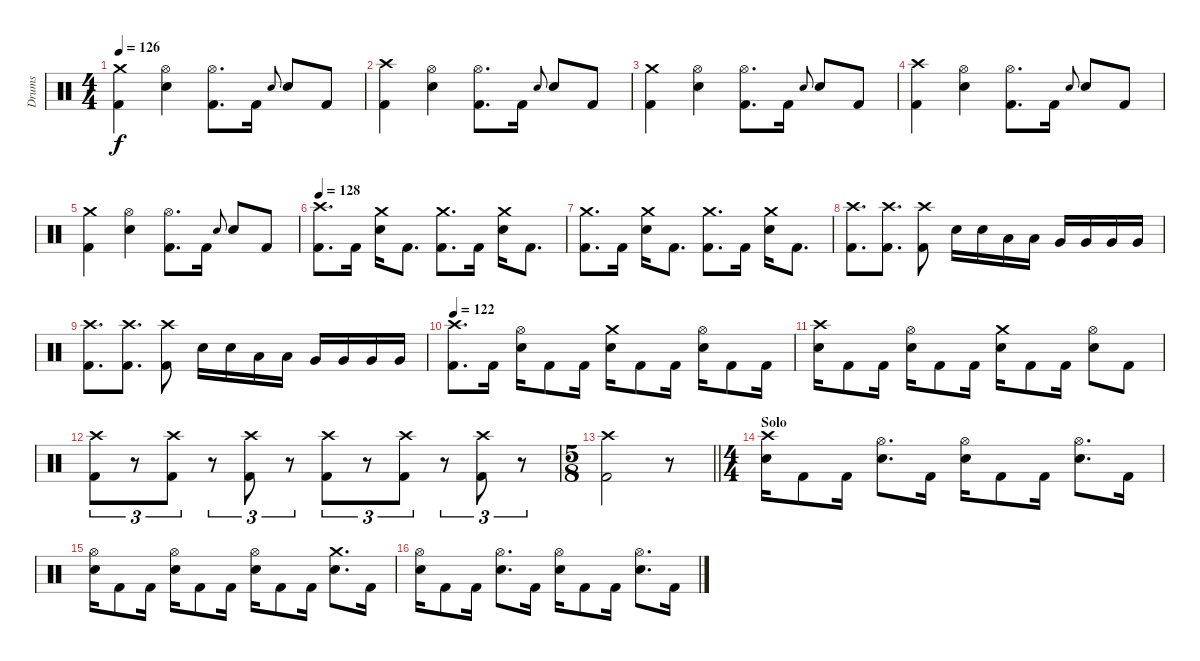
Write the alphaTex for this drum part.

\track ("Drums" "Drums") {instrument percussion}
\staff {score}
\articulation defaults
\ts (4 4)
\tempo 126
\clef neutral
\ks c
("Crash medium (hit)" "Kick (hit) 2").4{dy f} ("Hi-Hat (open)" "Snare (hit) 2").4 ("Hi-Hat (open)" "Kick (hit) 2").8{d} "Kick (hit) 2".16 "Snare (hit) 2".8{gr onbeat} "Snare (hit) 2".8 "Kick (hit) 2".8 |
("Crash high (hit)" "Kick (hit) 2").4 ("Hi-Hat (open)" "Snare (hit) 2").4 ("Hi-Hat (open)" "Kick (hit) 2").8{d} "Kick (hit) 2".16 "Snare (hit) 2".8{gr onbeat} "Snare (hit) 2".8 "Kick (hit) 2".8 |
("Crash medium (hit)" "Kick (hit) 2").4 ("Hi-Hat (open)" "Snare (hit) 2").4 ("Hi-Hat (open)" "Kick (hit) 2").8{d} "Kick (hit) 2".16 "Snare (hit) 2".8{gr onbeat} "Snare (hit) 2".8 "Kick (hit) 2".8 |
("Crash high (hit)" "Kick (hit) 2").4 ("Hi-Hat (open)" "Snare (hit) 2").4 ("Hi-Hat (open)" "Kick (hit) 2").8{d} "Kick (hit) 2".16 "Snare (hit) 2".8{gr onbeat} "Snare (hit) 2".8 "Kick (hit) 2".8 |
("Crash medium (hit)" "Kick (hit) 2").4 ("Hi-Hat (open)" "Snare (hit) 2").4 ("Hi-Hat (open)" "Kick (hit) 2").8{d} "Kick (hit) 2".16 "Snare (hit) 2".8{gr onbeat} "Snare (hit) 2".8 "Kick (hit) 2".8 |
\tempo 128
("Crash high (hit)" "Kick (hit) 2").8{d} "Kick (hit) 2".16 ("Crash medium (hit)" "Snare (hit) 2").16 "Kick (hit) 2".8{d} ("Crash medium (hit)" "Kick (hit) 2").8{d} "Kick (hit) 2".16 ("Crash medium (hit)" "Snare (hit) 2").16 "Kick (hit) 2".8{d} |
("Crash medium (hit)" "Kick (hit) 2").8{d} "Kick (hit) 2".16 ("Crash medium (hit)" "Snare (hit) 2").16 "Kick (hit) 2".8{d} ("Crash medium (hit)" "Kick (hit) 2").8{d} "Kick (hit) 2".16 ("Crash medium (hit)" "Snare (hit) 2").16 "Kick (hit) 2".8{d} |
("Crash high (hit)" "Kick (hit) 2").8{d} ("Crash high (hit)" "Kick (hit) 2").8{d} ("Crash high (hit)" "Kick (hit) 2").8 "Snare (hit) 2".16 "Snare (hit) 2".16 "Low Tom (hit)".16 "Low Tom (hit)".16 "Very Low Tom (hit)".16 "Very Low Tom (hit)".16 "Very Low Tom (hit)".16 "Very Low Tom (hit)".16 |
("Crash high (hit)" "Kick (hit) 2").8{d} ("Crash high (hit)" "Kick (hit) 2").8{d} ("Crash high (hit)" "Kick (hit) 2").8 "Snare (hit) 2".16 "Snare (hit) 2".16 "Low Tom (hit)".16 "Low Tom (hit)".16 "Very Low Tom (hit)".16 "Very Low Tom (hit)".16 "Very Low Tom (hit)".16 "Very Low Tom (hit)".16 |
\tempo 122
("Crash high (hit)" "Kick (hit) 2").8{d} "Kick (hit) 2".16 ("Hi-Hat (open)" "Snare (hit) 2").16 "Kick (hit) 2".8 "Kick (hit) 2".16 ("Crash medium (hit)" "Snare (hit) 2").16 "Kick (hit) 2".8 "Kick (hit) 2".16 ("Hi-Hat (open)" "Snare (hit) 2").16 "Kick (hit) 2".8 "Kick (hit) 2".16 |
("Crash high (hit)" "Snare (hit) 2").16 "Kick (hit) 2".8 "Kick (hit) 2".16 ("Hi-Hat (open)" "Snare (hit) 2").16 "Kick (hit) 2".8 "Kick (hit) 2".16 ("Crash medium (hit)" "Snare (hit) 2").16 "Kick (hit) 2".8 "Kick (hit) 2".16 ("Hi-Hat (open)" "Snare (hit) 2").8 "Kick (hit) 2".8 |
("Crash high (hit)" "Kick (hit) 2").8{tu (3 2)} r.8{tu (3 2)} ("Crash high (hit)" "Kick (hit) 2").8{tu (3 2)} r.8{tu (3 2)} ("Crash high (hit)" "Kick (hit) 2").8{tu (3 2)} r.8{tu (3 2)} ("Crash high (hit)" "Kick (hit) 2").8{tu (3 2)} r.8{tu (3 2)} ("Crash high (hit)" "Kick (hit) 2").8{tu (3 2)} r.8{tu (3 2)} ("Crash high (hit)" "Kick (hit) 2").8{tu (3 2)} r.8{tu (3 2)} |
\ts (5 8)
\barLineRight lightlight
("Crash high (hit)" "Kick (hit) 2").2 r.8 |
\ts (4 4)
\section ("" "Solo")
("Crash high (hit)" "Snare (hit) 2").16 "Kick (hit) 2".8 "Kick (hit) 2".16 ("Hi-Hat (open)" "Snare (hit) 2").8{d} "Kick (hit) 2".16 ("Hi-Hat (open)" "Snare (hit) 2").16 "Kick (hit) 2".8 "Kick (hit) 2".16 ("Hi-Hat (open)" "Snare (hit) 2").8{d} "Kick (hit) 2".16 |
("Hi-Hat (open)" "Snare (hit) 2").16 "Kick (hit) 2".8 "Kick (hit) 2".16 ("Hi-Hat (open)" "Snare (hit) 2").16 "Kick (hit) 2".8 "Kick (hit) 2".16 ("Hi-Hat (open)" "Snare (hit) 2").16 "Kick (hit) 2".8 "Kick (hit) 2".16 ("Crash medium (hit)" "Snare (hit) 2").8{d} "Kick (hit) 2".16 |
("Hi-Hat (open)" "Snare (hit) 2").16 "Kick (hit) 2".8 "Kick (hit) 2".16 ("Hi-Hat (open)" "Snare (hit) 2").8{d} "Kick (hit) 2".16 ("Hi-Hat (open)" "Snare (hit) 2").16 "Kick (hit) 2".8 "Kick (hit) 2".16 ("Hi-Hat (open)" "Snare (hit) 2").8{d} "Kick (hit) 2".16
